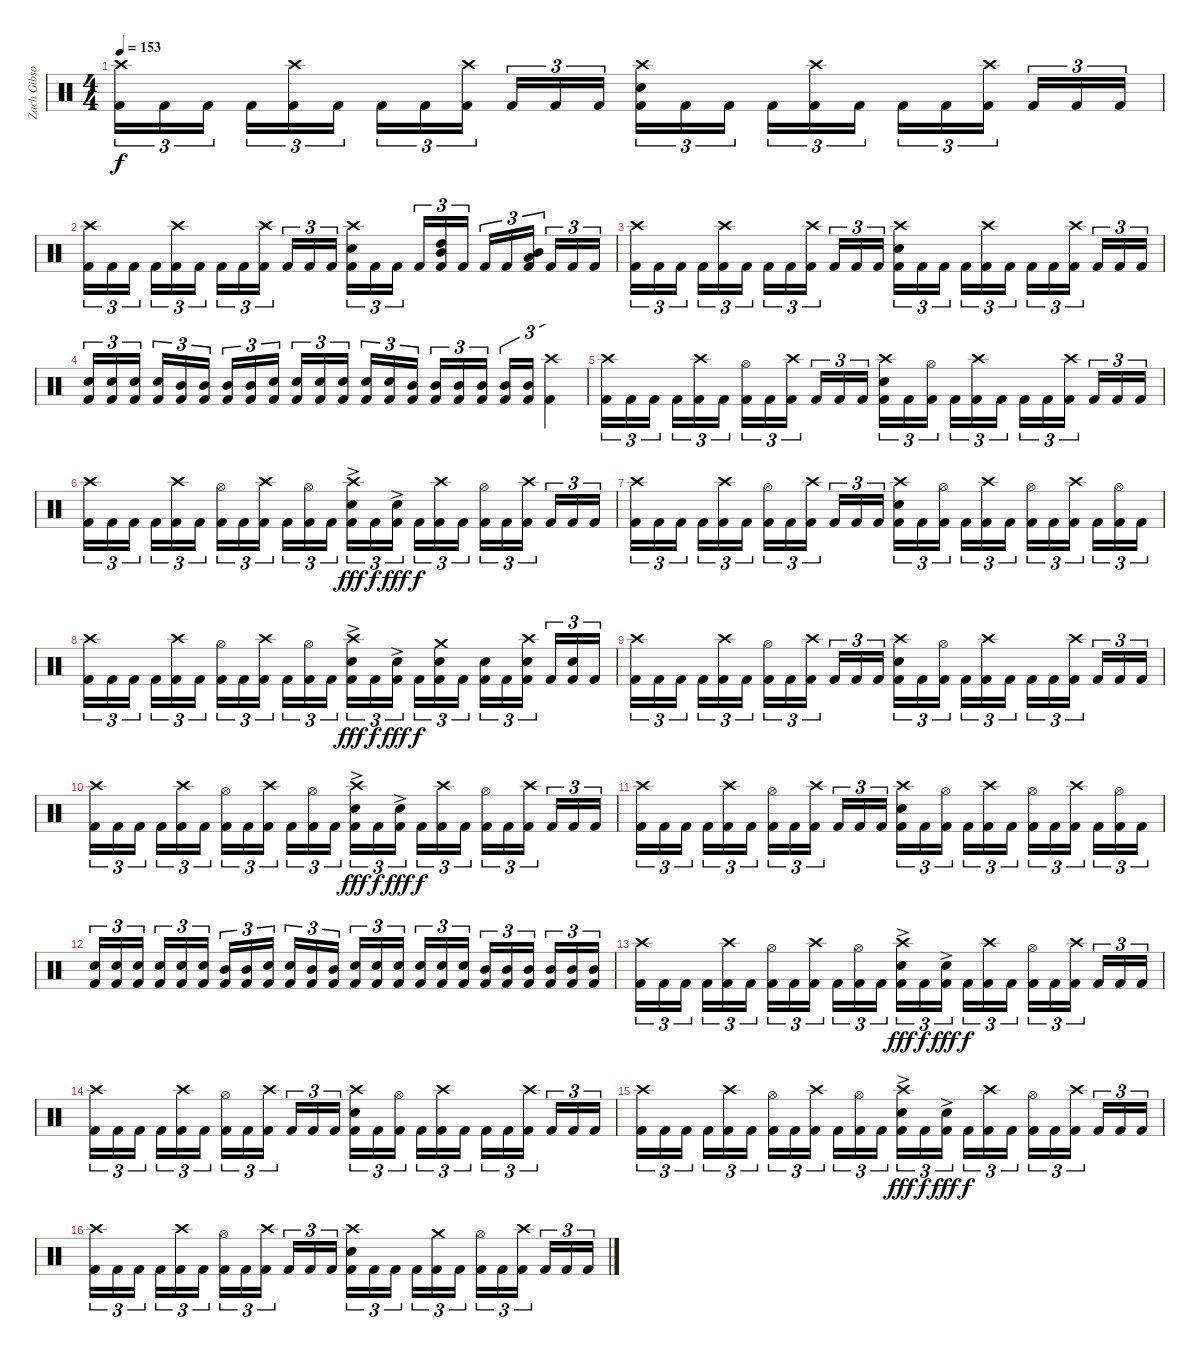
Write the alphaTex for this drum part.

\track ("Zach Gibson (Drums)" "Zach Gibso") {instrument percussion}
\staff {score}
\articulation defaults
\ts (4 4)
\tempo 153
\clef neutral
\ks c
("Crash high (hit)" "Kick (hit) 2").16{tu (3 2) dy f} "Kick (hit) 2".16{tu (3 2)} "Kick (hit) 2".16{tu (3 2)} "Kick (hit) 2".16{tu (3 2)} ("Crash high (hit)" "Kick (hit) 2").16{tu (3 2)} "Kick (hit) 2".16{tu (3 2)} "Kick (hit) 2".16{tu (3 2)} "Kick (hit) 2".16{tu (3 2)} ("Crash high (hit)" "Kick (hit) 2").16{tu (3 2)} "Kick (hit) 2".16{tu (3 2)} "Kick (hit) 2".16{tu (3 2)} "Kick (hit) 2".16{tu (3 2)} ("Crash high (hit)" "Snare (hit) 2" "Kick (hit) 2").16{tu (3 2)} "Kick (hit) 2".16{tu (3 2)} "Kick (hit) 2".16{tu (3 2)} "Kick (hit) 2".16{tu (3 2)} ("Crash high (hit)" "Kick (hit) 2").16{tu (3 2)} "Kick (hit) 2".16{tu (3 2)} "Kick (hit) 2".16{tu (3 2)} "Kick (hit) 2".16{tu (3 2)} ("Crash high (hit)" "Kick (hit) 2").16{tu (3 2)} "Kick (hit) 2".16{tu (3 2)} "Kick (hit) 2".16{tu (3 2)} "Kick (hit) 2".16{tu (3 2)} |
("Crash high (hit)" "Kick (hit) 2").16{tu (3 2)} "Kick (hit) 2".16{tu (3 2)} "Kick (hit) 2".16{tu (3 2)} "Kick (hit) 2".16{tu (3 2)} ("Crash high (hit)" "Kick (hit) 2").16{tu (3 2)} "Kick (hit) 2".16{tu (3 2)} "Kick (hit) 2".16{tu (3 2)} "Kick (hit) 2".16{tu (3 2)} ("Crash high (hit)" "Kick (hit) 2").16{tu (3 2)} "Kick (hit) 2".16{tu (3 2)} "Kick (hit) 2".16{tu (3 2)} "Kick (hit) 2".16{tu (3 2)} ("Crash high (hit)" "Snare (hit) 2" "Kick (hit) 2").16{tu (3 2)} "Kick (hit) 2".16{tu (3 2)} "Kick (hit) 2".16{tu (3 2)} "Kick (hit) 2".16{tu (3 2)} ("High Tom (hit)" "Mid Tom (hit)" "Kick (hit) 2").16{tu (3 2)} "Kick (hit) 2".16{tu (3 2)} "Kick (hit) 2".16{tu (3 2)} "Kick (hit) 2".16{tu (3 2)} ("Mid Tom (hit)" "Low Tom (hit)" "Kick (hit) 2").16{tu (3 2)} "Kick (hit) 2".16{tu (3 2)} "Kick (hit) 2".16{tu (3 2)} "Kick (hit) 2".16{tu (3 2)} |
("Crash high (hit)" "Kick (hit) 2").16{tu (3 2)} "Kick (hit) 2".16{tu (3 2)} "Kick (hit) 2".16{tu (3 2)} "Kick (hit) 2".16{tu (3 2)} ("Crash high (hit)" "Kick (hit) 2").16{tu (3 2)} "Kick (hit) 2".16{tu (3 2)} "Kick (hit) 2".16{tu (3 2)} "Kick (hit) 2".16{tu (3 2)} ("Crash high (hit)" "Kick (hit) 2").16{tu (3 2)} "Kick (hit) 2".16{tu (3 2)} "Kick (hit) 2".16{tu (3 2)} "Kick (hit) 2".16{tu (3 2)} ("Crash high (hit)" "Snare (hit) 2" "Kick (hit) 2").16{tu (3 2)} "Kick (hit) 2".16{tu (3 2)} "Kick (hit) 2".16{tu (3 2)} "Kick (hit) 2".16{tu (3 2)} ("Crash high (hit)" "Kick (hit) 2").16{tu (3 2)} "Kick (hit) 2".16{tu (3 2)} "Kick (hit) 2".16{tu (3 2)} "Kick (hit) 2".16{tu (3 2)} ("Crash high (hit)" "Kick (hit) 2").16{tu (3 2)} "Kick (hit) 2".16{tu (3 2)} "Kick (hit) 2".16{tu (3 2)} "Kick (hit) 2".16{tu (3 2)} |
("Snare (hit) 2" "Kick (hit) 2").16{tu (3 2)} ("Snare (hit) 2" "Kick (hit) 2").16{tu (3 2)} ("Snare (hit) 2" "Kick (hit) 2").16{tu (3 2)} ("Snare (hit) 2" "Kick (hit) 2").16{tu (3 2)} ("Mid Tom (hit)" "Kick (hit) 2").16{tu (3 2)} ("Mid Tom (hit)" "Kick (hit) 2").16{tu (3 2)} ("Mid Tom (hit)" "Kick (hit) 2").16{tu (3 2)} ("Mid Tom (hit)" "Kick (hit) 2").16{tu (3 2)} ("Snare (hit) 2" "Kick (hit) 2").16{tu (3 2)} ("Snare (hit) 2" "Kick (hit) 2").16{tu (3 2)} ("Snare (hit) 2" "Kick (hit) 2").16{tu (3 2)} ("Snare (hit) 2" "Kick (hit) 2").16{tu (3 2)} ("Snare (hit) 2" "Kick (hit) 2").16{tu (3 2)} ("Snare (hit) 2" "Kick (hit) 2").16{tu (3 2)} ("Mid Tom (hit)" "Kick (hit) 2").16{tu (3 2)} ("Mid Tom (hit)" "Kick (hit) 2").16{tu (3 2)} ("Mid Tom (hit)" "Kick (hit) 2").16{tu (3 2)} ("Mid Tom (hit)" "Kick (hit) 2").16{tu (3 2)} ("Mid Tom (hit)" "Kick (hit) 2").16{tu (3 2)} ("Mid Tom (hit)" "Kick (hit) 2").16{tu (3 2)} ("Crash high (hit)" "Kick (hit) 2").4{tu (3 2)} |
("Crash high (hit)" "Kick (hit) 2").16{tu (3 2)} "Kick (hit) 2".16{tu (3 2)} "Kick (hit) 2".16{tu (3 2)} "Kick (hit) 2".16{tu (3 2)} ("Crash high (hit)" "Kick (hit) 2").16{tu (3 2)} "Kick (hit) 2".16{tu (3 2)} ("Hi-Hat (open)" "Kick (hit) 2").16{tu (3 2)} "Kick (hit) 2".16{tu (3 2)} ("Crash high (hit)" "Kick (hit) 2").16{tu (3 2)} "Kick (hit) 2".16{tu (3 2)} "Kick (hit) 2".16{tu (3 2)} "Kick (hit) 2".16{tu (3 2)} ("Crash high (hit)" "Snare (hit) 2" "Kick (hit) 2").16{tu (3 2)} "Kick (hit) 2".16{tu (3 2)} ("Hi-Hat (open)" "Kick (hit) 2").16{tu (3 2)} "Kick (hit) 2".16{tu (3 2)} ("Crash high (hit)" "Kick (hit) 2").16{tu (3 2)} "Kick (hit) 2".16{tu (3 2)} "Kick (hit) 2".16{tu (3 2)} "Kick (hit) 2".16{tu (3 2)} ("Crash high (hit)" "Kick (hit) 2").16{tu (3 2)} "Kick (hit) 2".16{tu (3 2)} "Kick (hit) 2".16{tu (3 2)} "Kick (hit) 2".16{tu (3 2)} |
("Crash high (hit)" "Kick (hit) 2").16{tu (3 2)} "Kick (hit) 2".16{tu (3 2)} "Kick (hit) 2".16{tu (3 2)} "Kick (hit) 2".16{tu (3 2)} ("Crash high (hit)" "Kick (hit) 2").16{tu (3 2)} "Kick (hit) 2".16{tu (3 2)} ("Hi-Hat (open)" "Kick (hit) 2").16{tu (3 2)} "Kick (hit) 2".16{tu (3 2)} ("Crash high (hit)" "Kick (hit) 2").16{tu (3 2)} "Kick (hit) 2".16{tu (3 2)} ("Hi-Hat (open)" "Kick (hit) 2").16{tu (3 2)} "Kick (hit) 2".16{tu (3 2)} ("Crash high (hit)" "Snare (hit) 2"{ac} "Kick (hit) 2").16{tu (3 2) dy fff} "Kick (hit) 2".16{tu (3 2) dy f} ("Snare (hit) 2"{ac} "Kick (hit) 2").16{tu (3 2) dy fff} "Kick (hit) 2".16{tu (3 2) dy f} ("Crash high (hit)" "Kick (hit) 2").16{tu (3 2)} "Kick (hit) 2".16{tu (3 2)} ("Hi-Hat (open)" "Kick (hit) 2").16{tu (3 2)} "Kick (hit) 2".16{tu (3 2)} ("Crash high (hit)" "Kick (hit) 2").16{tu (3 2)} "Kick (hit) 2".16{tu (3 2)} "Kick (hit) 2".16{tu (3 2)} "Kick (hit) 2".16{tu (3 2)} |
("Crash high (hit)" "Kick (hit) 2").16{tu (3 2)} "Kick (hit) 2".16{tu (3 2)} "Kick (hit) 2".16{tu (3 2)} "Kick (hit) 2".16{tu (3 2)} ("Crash high (hit)" "Kick (hit) 2").16{tu (3 2)} "Kick (hit) 2".16{tu (3 2)} ("Hi-Hat (open)" "Kick (hit) 2").16{tu (3 2)} "Kick (hit) 2".16{tu (3 2)} ("Crash high (hit)" "Kick (hit) 2").16{tu (3 2)} "Kick (hit) 2".16{tu (3 2)} "Kick (hit) 2".16{tu (3 2)} "Kick (hit) 2".16{tu (3 2)} ("Crash high (hit)" "Snare (hit) 2" "Kick (hit) 2").16{tu (3 2)} "Kick (hit) 2".16{tu (3 2)} ("Hi-Hat (open)" "Kick (hit) 2").16{tu (3 2)} "Kick (hit) 2".16{tu (3 2)} ("Crash high (hit)" "Kick (hit) 2").16{tu (3 2)} "Kick (hit) 2".16{tu (3 2)} ("Hi-Hat (open)" "Kick (hit) 2").16{tu (3 2)} "Kick (hit) 2".16{tu (3 2)} ("Crash high (hit)" "Kick (hit) 2").16{tu (3 2)} "Kick (hit) 2".16{tu (3 2)} ("Hi-Hat (open)" "Kick (hit) 2").16{tu (3 2)} "Kick (hit) 2".16{tu (3 2)} |
("Crash high (hit)" "Kick (hit) 2").16{tu (3 2)} "Kick (hit) 2".16{tu (3 2)} "Kick (hit) 2".16{tu (3 2)} "Kick (hit) 2".16{tu (3 2)} ("Crash high (hit)" "Kick (hit) 2").16{tu (3 2)} "Kick (hit) 2".16{tu (3 2)} ("Hi-Hat (open)" "Kick (hit) 2").16{tu (3 2)} "Kick (hit) 2".16{tu (3 2)} ("Crash high (hit)" "Kick (hit) 2").16{tu (3 2)} "Kick (hit) 2".16{tu (3 2)} ("Hi-Hat (open)" "Kick (hit) 2").16{tu (3 2)} "Kick (hit) 2".16{tu (3 2)} ("Crash high (hit)" "Snare (hit) 2"{ac} "Kick (hit) 2").16{tu (3 2) dy fff} "Kick (hit) 2".16{tu (3 2) dy f} ("Snare (hit) 2"{ac} "Kick (hit) 2").16{tu (3 2) dy fff} "Kick (hit) 2".16{tu (3 2) dy f} ("Crash medium (hit)" "Snare (hit) 2" "Kick (hit) 2").16{tu (3 2)} "Kick (hit) 2".16{tu (3 2)} ("Snare (hit) 2" "Kick (hit) 2").16{tu (3 2)} "Kick (hit) 2".16{tu (3 2)} ("Crash high (hit)" "Snare (hit) 2" "Kick (hit) 2").16{tu (3 2)} "Kick (hit) 2".16{tu (3 2)} ("Snare (hit) 2" "Kick (hit) 2").16{tu (3 2)} "Kick (hit) 2".16{tu (3 2)} |
("Crash high (hit)" "Kick (hit) 2").16{tu (3 2)} "Kick (hit) 2".16{tu (3 2)} "Kick (hit) 2".16{tu (3 2)} "Kick (hit) 2".16{tu (3 2)} ("Crash high (hit)" "Kick (hit) 2").16{tu (3 2)} "Kick (hit) 2".16{tu (3 2)} ("Hi-Hat (open)" "Kick (hit) 2").16{tu (3 2)} "Kick (hit) 2".16{tu (3 2)} ("Crash high (hit)" "Kick (hit) 2").16{tu (3 2)} "Kick (hit) 2".16{tu (3 2)} "Kick (hit) 2".16{tu (3 2)} "Kick (hit) 2".16{tu (3 2)} ("Crash high (hit)" "Snare (hit) 2" "Kick (hit) 2").16{tu (3 2)} "Kick (hit) 2".16{tu (3 2)} ("Hi-Hat (open)" "Kick (hit) 2").16{tu (3 2)} "Kick (hit) 2".16{tu (3 2)} ("Crash high (hit)" "Kick (hit) 2").16{tu (3 2)} "Kick (hit) 2".16{tu (3 2)} "Kick (hit) 2".16{tu (3 2)} "Kick (hit) 2".16{tu (3 2)} ("Crash high (hit)" "Kick (hit) 2").16{tu (3 2)} "Kick (hit) 2".16{tu (3 2)} "Kick (hit) 2".16{tu (3 2)} "Kick (hit) 2".16{tu (3 2)} |
("Crash high (hit)" "Kick (hit) 2").16{tu (3 2)} "Kick (hit) 2".16{tu (3 2)} "Kick (hit) 2".16{tu (3 2)} "Kick (hit) 2".16{tu (3 2)} ("Crash high (hit)" "Kick (hit) 2").16{tu (3 2)} "Kick (hit) 2".16{tu (3 2)} ("Hi-Hat (open)" "Kick (hit) 2").16{tu (3 2)} "Kick (hit) 2".16{tu (3 2)} ("Crash high (hit)" "Kick (hit) 2").16{tu (3 2)} "Kick (hit) 2".16{tu (3 2)} ("Hi-Hat (open)" "Kick (hit) 2").16{tu (3 2)} "Kick (hit) 2".16{tu (3 2)} ("Crash high (hit)" "Snare (hit) 2"{ac} "Kick (hit) 2").16{tu (3 2) dy fff} "Kick (hit) 2".16{tu (3 2) dy f} ("Snare (hit) 2"{ac} "Kick (hit) 2").16{tu (3 2) dy fff} "Kick (hit) 2".16{tu (3 2) dy f} ("Crash high (hit)" "Kick (hit) 2").16{tu (3 2)} "Kick (hit) 2".16{tu (3 2)} ("Hi-Hat (open)" "Kick (hit) 2").16{tu (3 2)} "Kick (hit) 2".16{tu (3 2)} ("Crash high (hit)" "Kick (hit) 2").16{tu (3 2)} "Kick (hit) 2".16{tu (3 2)} "Kick (hit) 2".16{tu (3 2)} "Kick (hit) 2".16{tu (3 2)} |
("Crash high (hit)" "Kick (hit) 2").16{tu (3 2)} "Kick (hit) 2".16{tu (3 2)} "Kick (hit) 2".16{tu (3 2)} "Kick (hit) 2".16{tu (3 2)} ("Crash high (hit)" "Kick (hit) 2").16{tu (3 2)} "Kick (hit) 2".16{tu (3 2)} ("Hi-Hat (open)" "Kick (hit) 2").16{tu (3 2)} "Kick (hit) 2".16{tu (3 2)} ("Crash high (hit)" "Kick (hit) 2").16{tu (3 2)} "Kick (hit) 2".16{tu (3 2)} "Kick (hit) 2".16{tu (3 2)} "Kick (hit) 2".16{tu (3 2)} ("Crash high (hit)" "Snare (hit) 2" "Kick (hit) 2").16{tu (3 2)} "Kick (hit) 2".16{tu (3 2)} ("Hi-Hat (open)" "Kick (hit) 2").16{tu (3 2)} "Kick (hit) 2".16{tu (3 2)} ("Crash high (hit)" "Kick (hit) 2").16{tu (3 2)} "Kick (hit) 2".16{tu (3 2)} ("Hi-Hat (open)" "Kick (hit) 2").16{tu (3 2)} "Kick (hit) 2".16{tu (3 2)} ("Crash high (hit)" "Kick (hit) 2").16{tu (3 2)} "Kick (hit) 2".16{tu (3 2)} ("Hi-Hat (open)" "Kick (hit) 2").16{tu (3 2)} "Kick (hit) 2".16{tu (3 2)} |
("Snare (hit) 2" "Kick (hit) 2").16{tu (3 2)} ("Snare (hit) 2" "Kick (hit) 2").16{tu (3 2)} ("Snare (hit) 2" "Kick (hit) 2").16{tu (3 2)} ("Snare (hit) 2" "Kick (hit) 2").16{tu (3 2)} ("Snare (hit) 2" "Kick (hit) 2").16{tu (3 2)} ("Snare (hit) 2" "Kick (hit) 2").16{tu (3 2)} ("Mid Tom (hit)" "Kick (hit) 2").16{tu (3 2)} ("Mid Tom (hit)" "Kick (hit) 2").16{tu (3 2)} ("Snare (hit) 2" "Kick (hit) 2").16{tu (3 2)} ("Snare (hit) 2" "Kick (hit) 2").16{tu (3 2)} ("Mid Tom (hit)" "Kick (hit) 2").16{tu (3 2)} ("Mid Tom (hit)" "Kick (hit) 2").16{tu (3 2)} ("Snare (hit) 2" "Kick (hit) 2").16{tu (3 2)} ("Snare (hit) 2" "Kick (hit) 2").16{tu (3 2)} ("Snare (hit) 2" "Kick (hit) 2").16{tu (3 2)} ("Snare (hit) 2" "Kick (hit) 2").16{tu (3 2)} ("Snare (hit) 2" "Kick (hit) 2").16{tu (3 2)} ("Snare (hit) 2" "Kick (hit) 2").16{tu (3 2)} ("Mid Tom (hit)" "Kick (hit) 2").16{tu (3 2)} ("Mid Tom (hit)" "Kick (hit) 2").16{tu (3 2)} ("Mid Tom (hit)" "Kick (hit) 2").16{tu (3 2)} ("Mid Tom (hit)" "Kick (hit) 2").16{tu (3 2)} ("Mid Tom (hit)" "Kick (hit) 2").16{tu (3 2)} ("Mid Tom (hit)" "Kick (hit) 2").16{tu (3 2)} |
("Crash high (hit)" "Kick (hit) 2").16{tu (3 2)} "Kick (hit) 2".16{tu (3 2)} "Kick (hit) 2".16{tu (3 2)} "Kick (hit) 2".16{tu (3 2)} ("Crash high (hit)" "Kick (hit) 2").16{tu (3 2)} "Kick (hit) 2".16{tu (3 2)} ("Hi-Hat (open)" "Kick (hit) 2").16{tu (3 2)} "Kick (hit) 2".16{tu (3 2)} ("Crash high (hit)" "Kick (hit) 2").16{tu (3 2)} "Kick (hit) 2".16{tu (3 2)} ("Hi-Hat (open)" "Kick (hit) 2").16{tu (3 2)} "Kick (hit) 2".16{tu (3 2)} ("Crash high (hit)" "Snare (hit) 2"{ac} "Kick (hit) 2").16{tu (3 2) dy fff} "Kick (hit) 2".16{tu (3 2) dy f} ("Snare (hit) 2"{ac} "Kick (hit) 2").16{tu (3 2) dy fff} "Kick (hit) 2".16{tu (3 2) dy f} ("Crash high (hit)" "Kick (hit) 2").16{tu (3 2)} "Kick (hit) 2".16{tu (3 2)} ("Hi-Hat (open)" "Kick (hit) 2").16{tu (3 2)} "Kick (hit) 2".16{tu (3 2)} ("Crash high (hit)" "Kick (hit) 2").16{tu (3 2)} "Kick (hit) 2".16{tu (3 2)} "Kick (hit) 2".16{tu (3 2)} "Kick (hit) 2".16{tu (3 2)} |
("Crash high (hit)" "Kick (hit) 2").16{tu (3 2)} "Kick (hit) 2".16{tu (3 2)} "Kick (hit) 2".16{tu (3 2)} "Kick (hit) 2".16{tu (3 2)} ("Crash high (hit)" "Kick (hit) 2").16{tu (3 2)} "Kick (hit) 2".16{tu (3 2)} ("Hi-Hat (open)" "Kick (hit) 2").16{tu (3 2)} "Kick (hit) 2".16{tu (3 2)} ("Crash high (hit)" "Kick (hit) 2").16{tu (3 2)} "Kick (hit) 2".16{tu (3 2)} "Kick (hit) 2".16{tu (3 2)} "Kick (hit) 2".16{tu (3 2)} ("Crash high (hit)" "Snare (hit) 2" "Kick (hit) 2").16{tu (3 2)} "Kick (hit) 2".16{tu (3 2)} ("Hi-Hat (open)" "Kick (hit) 2").16{tu (3 2)} "Kick (hit) 2".16{tu (3 2)} ("Crash high (hit)" "Kick (hit) 2").16{tu (3 2)} "Kick (hit) 2".16{tu (3 2)} "Kick (hit) 2".16{tu (3 2)} "Kick (hit) 2".16{tu (3 2)} ("Crash high (hit)" "Kick (hit) 2").16{tu (3 2)} "Kick (hit) 2".16{tu (3 2)} "Kick (hit) 2".16{tu (3 2)} "Kick (hit) 2".16{tu (3 2)} |
("Crash high (hit)" "Kick (hit) 2").16{tu (3 2)} "Kick (hit) 2".16{tu (3 2)} "Kick (hit) 2".16{tu (3 2)} "Kick (hit) 2".16{tu (3 2)} ("Crash high (hit)" "Kick (hit) 2").16{tu (3 2)} "Kick (hit) 2".16{tu (3 2)} ("Hi-Hat (open)" "Kick (hit) 2").16{tu (3 2)} "Kick (hit) 2".16{tu (3 2)} ("Crash high (hit)" "Kick (hit) 2").16{tu (3 2)} "Kick (hit) 2".16{tu (3 2)} ("Hi-Hat (open)" "Kick (hit) 2").16{tu (3 2)} "Kick (hit) 2".16{tu (3 2)} ("Crash high (hit)" "Snare (hit) 2"{ac} "Kick (hit) 2").16{tu (3 2) dy fff} "Kick (hit) 2".16{tu (3 2) dy f} ("Snare (hit) 2"{ac} "Kick (hit) 2").16{tu (3 2) dy fff} "Kick (hit) 2".16{tu (3 2) dy f} ("Crash high (hit)" "Kick (hit) 2").16{tu (3 2)} "Kick (hit) 2".16{tu (3 2)} ("Hi-Hat (open)" "Kick (hit) 2").16{tu (3 2)} "Kick (hit) 2".16{tu (3 2)} ("Crash high (hit)" "Kick (hit) 2").16{tu (3 2)} "Kick (hit) 2".16{tu (3 2)} "Kick (hit) 2".16{tu (3 2)} "Kick (hit) 2".16{tu (3 2)} |
("Crash high (hit)" "Kick (hit) 2").16{tu (3 2)} "Kick (hit) 2".16{tu (3 2)} "Kick (hit) 2".16{tu (3 2)} "Kick (hit) 2".16{tu (3 2)} ("Crash high (hit)" "Kick (hit) 2").16{tu (3 2)} "Kick (hit) 2".16{tu (3 2)} ("Hi-Hat (open)" "Kick (hit) 2").16{tu (3 2)} "Kick (hit) 2".16{tu (3 2)} ("Crash high (hit)" "Kick (hit) 2").16{tu (3 2)} "Kick (hit) 2".16{tu (3 2)} "Kick (hit) 2".16{tu (3 2)} "Kick (hit) 2".16{tu (3 2)} ("Crash high (hit)" "Snare (hit) 2" "Kick (hit) 2").16{tu (3 2)} "Kick (hit) 2".16{tu (3 2)} "Kick (hit) 2".16{tu (3 2)} "Kick (hit) 2".16{tu (3 2)} ("Crash medium (hit)" "Kick (hit) 2").16{tu (3 2)} "Kick (hit) 2".16{tu (3 2)} ("Hi-Hat (open)" "Kick (hit) 2").16{tu (3 2)} "Kick (hit) 2".16{tu (3 2)} ("Crash high (hit)" "Kick (hit) 2").16{tu (3 2)} "Kick (hit) 2".16{tu (3 2)} "Kick (hit) 2".16{tu (3 2)} "Kick (hit) 2".16{tu (3 2)}
